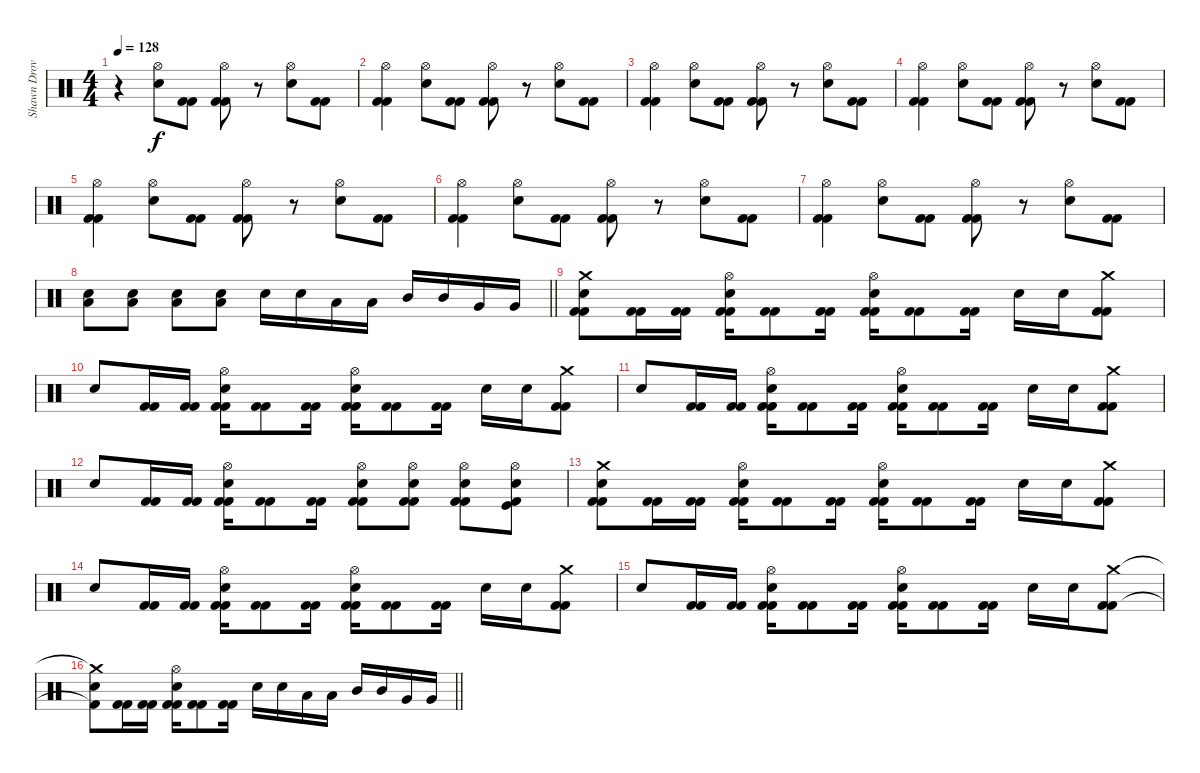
\track ("Shawn Drover" "Shawn Drov") {instrument percussion}
\staff {score}
\articulation defaults
\ts (4 4)
\tempo 128
\clef neutral
\ks c
r.4{dy f} ("Hi-Hat (open)" "Electric Snare (hit)").8 ("Kick (hit) 2" "Kick (hit) 2").8 ("Hi-Hat (open)" "Kick (hit) 2" "Kick (hit) 2").8 r.8 ("Hi-Hat (open)" "Electric Snare (hit)").8 ("Kick (hit) 2" "Kick (hit) 2").8 |
("Hi-Hat (open)" "Kick (hit) 2" "Kick (hit) 2").4 ("Hi-Hat (open)" "Electric Snare (hit)").8 ("Kick (hit) 2" "Kick (hit) 2").8 ("Hi-Hat (open)" "Kick (hit) 2" "Kick (hit) 2").8 r.8 ("Hi-Hat (open)" "Electric Snare (hit)").8 ("Kick (hit) 2" "Kick (hit) 2").8 |
("Hi-Hat (open)" "Kick (hit) 2" "Kick (hit) 2").4 ("Hi-Hat (open)" "Electric Snare (hit)").8 ("Kick (hit) 2" "Kick (hit) 2").8 ("Hi-Hat (open)" "Kick (hit) 2" "Kick (hit) 2").8 r.8 ("Hi-Hat (open)" "Electric Snare (hit)").8 ("Kick (hit) 2" "Kick (hit) 2").8 |
("Hi-Hat (open)" "Kick (hit) 2" "Kick (hit) 2").4 ("Hi-Hat (open)" "Electric Snare (hit)").8 ("Kick (hit) 2" "Kick (hit) 2").8 ("Hi-Hat (open)" "Kick (hit) 2" "Kick (hit) 2").8 r.8 ("Hi-Hat (open)" "Electric Snare (hit)").8 ("Kick (hit) 2" "Kick (hit) 2").8 |
("Hi-Hat (open)" "Kick (hit) 2" "Kick (hit) 2").4 ("Hi-Hat (open)" "Electric Snare (hit)").8 ("Kick (hit) 2" "Kick (hit) 2").8 ("Hi-Hat (open)" "Kick (hit) 2" "Kick (hit) 2").8 r.8 ("Hi-Hat (open)" "Electric Snare (hit)").8 ("Kick (hit) 2" "Kick (hit) 2").8 |
("Hi-Hat (open)" "Kick (hit) 2" "Kick (hit) 2").4 ("Hi-Hat (open)" "Electric Snare (hit)").8 ("Kick (hit) 2" "Kick (hit) 2").8 ("Hi-Hat (open)" "Kick (hit) 2" "Kick (hit) 2").8 r.8 ("Hi-Hat (open)" "Electric Snare (hit)").8 ("Kick (hit) 2" "Kick (hit) 2").8 |
("Hi-Hat (open)" "Kick (hit) 2" "Kick (hit) 2").4 ("Hi-Hat (open)" "Electric Snare (hit)").8 ("Kick (hit) 2" "Kick (hit) 2").8 ("Hi-Hat (open)" "Kick (hit) 2" "Kick (hit) 2").8 r.8 ("Hi-Hat (open)" "Electric Snare (hit)").8 ("Kick (hit) 2" "Kick (hit) 2").8 |
\barLineRight lightlight
("Low Tom (hit)" "Electric Snare (hit)").8 ("Low Tom (hit)" "Electric Snare (hit)").8 ("Low Tom (hit)" "Electric Snare (hit)").8 ("Low Tom (hit)" "Electric Snare (hit)").8 "Electric Snare (hit)".16 "Electric Snare (hit)".16 "Low Tom (hit)".16 "Low Tom (hit)".16 "Mid Tom (hit)".16 "Mid Tom (hit)".16 "Very Low Tom (hit)".16 "Very Low Tom (hit)".16 |
("Crash medium (hit)" "Electric Snare (hit)" "Kick (hit) 2" "Kick (hit) 2").8 ("Kick (hit) 2" "Kick (hit) 2").16 ("Kick (hit) 2" "Kick (hit) 2").16 ("Hi-Hat (open)" "Electric Snare (hit)" "Kick (hit) 2" "Kick (hit) 2").16 ("Kick (hit) 2" "Kick (hit) 2").8 ("Kick (hit) 2" "Kick (hit) 2").16 ("Hi-Hat (open)" "Electric Snare (hit)" "Kick (hit) 2" "Kick (hit) 2").16 ("Kick (hit) 2" "Kick (hit) 2").8 ("Kick (hit) 2" "Kick (hit) 2").16 "Electric Snare (hit)".16 "Electric Snare (hit)".16 ("Crash medium (hit)" "Kick (hit) 2" "Kick (hit) 2").8 |
"Electric Snare (hit)".8 ("Kick (hit) 2" "Kick (hit) 2").16 ("Kick (hit) 2" "Kick (hit) 2").16 ("Hi-Hat (open)" "Electric Snare (hit)" "Kick (hit) 2" "Kick (hit) 2").16 ("Kick (hit) 2" "Kick (hit) 2").8 ("Kick (hit) 2" "Kick (hit) 2").16 ("Hi-Hat (open)" "Electric Snare (hit)" "Kick (hit) 2" "Kick (hit) 2").16 ("Kick (hit) 2" "Kick (hit) 2").8 ("Kick (hit) 2" "Kick (hit) 2").16 "Electric Snare (hit)".16 "Electric Snare (hit)".16 ("Crash medium (hit)" "Kick (hit) 2" "Kick (hit) 2").8 |
"Electric Snare (hit)".8 ("Kick (hit) 2" "Kick (hit) 2").16 ("Kick (hit) 2" "Kick (hit) 2").16 ("Hi-Hat (open)" "Electric Snare (hit)" "Kick (hit) 2" "Kick (hit) 2").16 ("Kick (hit) 2" "Kick (hit) 2").8 ("Kick (hit) 2" "Kick (hit) 2").16 ("Hi-Hat (open)" "Electric Snare (hit)" "Kick (hit) 2" "Kick (hit) 2").16 ("Kick (hit) 2" "Kick (hit) 2").8 ("Kick (hit) 2" "Kick (hit) 2").16 "Electric Snare (hit)".16 "Electric Snare (hit)".16 ("Crash medium (hit)" "Kick (hit) 2" "Kick (hit) 2").8 |
"Electric Snare (hit)".8 ("Kick (hit) 2" "Kick (hit) 2").16 ("Kick (hit) 2" "Kick (hit) 2").16 ("Hi-Hat (open)" "Electric Snare (hit)" "Kick (hit) 2" "Kick (hit) 2").16 ("Kick (hit) 2" "Kick (hit) 2").8 ("Kick (hit) 2" "Kick (hit) 2").16 ("Hi-Hat (open)" "Electric Snare (hit)" "Kick (hit) 2" "Kick (hit) 2").8 ("Hi-Hat (open)" "Electric Snare (hit)" "Kick (hit) 2" "Kick (hit) 2").8 ("Hi-Hat (open)" "Electric Snare (hit)" "Kick (hit) 2" "Kick (hit) 2").8 ("Hi-Hat (open)" "Electric Snare (hit)" "Kick (hit) 2" "Kick (hit)").8 |
("Crash medium (hit)" "Electric Snare (hit)" "Kick (hit) 2" "Kick (hit) 2").8 ("Kick (hit) 2" "Kick (hit) 2").16 ("Kick (hit) 2" "Kick (hit) 2").16 ("Hi-Hat (open)" "Electric Snare (hit)" "Kick (hit) 2" "Kick (hit) 2").16 ("Kick (hit) 2" "Kick (hit) 2").8 ("Kick (hit) 2" "Kick (hit) 2").16 ("Hi-Hat (open)" "Electric Snare (hit)" "Kick (hit) 2" "Kick (hit) 2").16 ("Kick (hit) 2" "Kick (hit) 2").8 ("Kick (hit) 2" "Kick (hit) 2").16 "Electric Snare (hit)".16 "Electric Snare (hit)".16 ("Crash medium (hit)" "Kick (hit) 2" "Kick (hit) 2").8 |
"Electric Snare (hit)".8 ("Kick (hit) 2" "Kick (hit) 2").16 ("Kick (hit) 2" "Kick (hit) 2").16 ("Hi-Hat (open)" "Electric Snare (hit)" "Kick (hit) 2" "Kick (hit) 2").16 ("Kick (hit) 2" "Kick (hit) 2").8 ("Kick (hit) 2" "Kick (hit) 2").16 ("Hi-Hat (open)" "Electric Snare (hit)" "Kick (hit) 2" "Kick (hit) 2").16 ("Kick (hit) 2" "Kick (hit) 2").8 ("Kick (hit) 2" "Kick (hit) 2").16 "Electric Snare (hit)".16 "Electric Snare (hit)".16 ("Crash medium (hit)" "Kick (hit) 2" "Kick (hit) 2").8 |
"Electric Snare (hit)".8 ("Kick (hit) 2" "Kick (hit) 2").16 ("Kick (hit) 2" "Kick (hit) 2").16 ("Hi-Hat (open)" "Electric Snare (hit)" "Kick (hit) 2" "Kick (hit) 2").16 ("Kick (hit) 2" "Kick (hit) 2").8 ("Kick (hit) 2" "Kick (hit) 2").16 ("Hi-Hat (open)" "Electric Snare (hit)" "Kick (hit) 2" "Kick (hit) 2").16 ("Kick (hit) 2" "Kick (hit) 2").8 ("Kick (hit) 2" "Kick (hit) 2").16 "Electric Snare (hit)".16 "Electric Snare (hit)".16 ("Crash medium (hit)" "Kick (hit) 2" "Kick (hit) 2").8 |
\barLineRight lightlight
("Crash medium (hit)"{t} "Electric Snare (hit)" "Kick (hit) 2"{t}).8 ("Kick (hit) 2" "Kick (hit) 2").16 ("Kick (hit) 2" "Kick (hit) 2").16 ("Hi-Hat (open)" "Electric Snare (hit)" "Kick (hit) 2" "Kick (hit) 2").16 ("Kick (hit) 2" "Kick (hit) 2").8 ("Kick (hit) 2" "Kick (hit) 2").16 "Electric Snare (hit)".16 "Electric Snare (hit)".16 "Low Tom (hit)".16 "Low Tom (hit)".16 "Mid Tom (hit)".16 "Mid Tom (hit)".16 "Very Low Tom (hit)".16 "Very Low Tom (hit)".16
